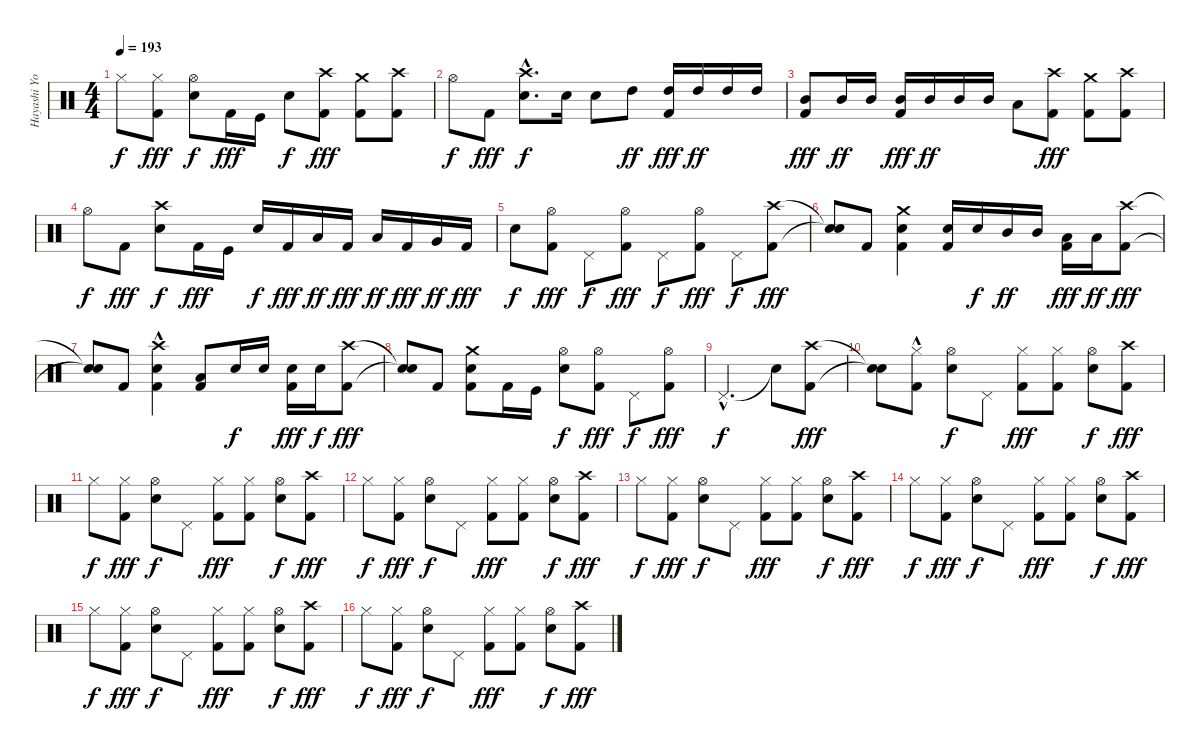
\track ("Hayashi Yoshiki(Yoshiki)" "Hayashi Yo") {instrument percussion}
\staff {score}
\articulation defaults
\ts (4 4)
\tempo 193
\clef neutral
\ks c "Hi-Hat (closed)".8{dy f}
("Hi-Hat (closed)" "Kick (hit) 2").8{dy fff} ("Hi-Hat (open)" "Electric Snare (hit)").8{dy f} "Kick (hit) 2".16{dy fff} "Kick (hit)".16 "Electric Snare (hit)".8{dy f} ("Crash high (hit)" "Kick (hit) 2").8{dy fff} ("Crash medium (hit)" "Kick (hit) 2").8 ("Crash high (hit)" "Kick (hit) 2").8 |
"Hi-Hat (open)".8{dy f} "Kick (hit) 2".8{dy fff} ("Crash high (hit)"{hac} "Electric Snare (hit)"{hac}).8{d dy f} "Electric Snare (hit)".16 "Electric Snare (hit)".8 "High Tom (hit)".8{dy ff} ("High Tom (hit)" "Kick (hit) 2").16{dy fff} "High Tom (hit)".16{dy ff} "High Tom (hit)".16 "High Tom (hit)".16 |
("Mid Tom (hit)" "Kick (hit) 2").8{dy fff} "Mid Tom (hit)".16{dy ff} "Mid Tom (hit)".16 ("Mid Tom (hit)" "Kick (hit) 2").16{dy fff} "Mid Tom (hit)".16{dy ff} "Mid Tom (hit)".16 "Mid Tom (hit)".16 "Low Tom (hit)".8 ("Crash high (hit)" "Kick (hit) 2").8{dy fff} ("Crash medium (hit)" "Kick (hit) 2").8 ("Crash high (hit)" "Kick (hit) 2").8 |
"Hi-Hat (open)".8{dy f} "Kick (hit) 2".8{dy fff} ("Crash high (hit)" "Electric Snare (hit)").8{dy f} "Kick (hit) 2".16{dy fff} "Kick (hit)".16 "Electric Snare (hit)".16{dy f} "Kick (hit) 2".16{dy fff} "Low Tom (hit)".16{dy ff} "Kick (hit) 2".16{dy fff} "Low Tom (hit)".16{dy ff} "Kick (hit) 2".16{dy fff} "Very Low Tom (hit)".16{dy ff} "Kick (hit) 2".16{dy fff} |
"Electric Snare (hit)".8{dy f} ("Hi-Hat (open)" "Kick (hit) 2").8{dy fff} "Pedal Hi-Hat (hit)".8{dy f} ("Hi-Hat (open)" "Kick (hit) 2").8{dy fff} "Pedal Hi-Hat (hit)".8{dy f} ("Hi-Hat (open)" "Kick (hit) 2").8{dy fff} "Pedal Hi-Hat (hit)".8{dy f} ("Crash high (hit)" "Kick (hit) 2").8{dy fff} |
("Snare (hit)"{t} "Snare (hit)"{t}).8 "Kick (hit) 2".8 ("Crash medium (hit)" "Electric Snare (hit)" "Kick (hit) 2").4 ("Electric Snare (hit)" "Kick (hit) 2").16 "Electric Snare (hit)".16{dy f} "Mid Tom (hit)".16{dy ff} "Mid Tom (hit)".16 ("Low Tom (hit)" "Kick (hit) 2").16{dy fff} "Low Tom (hit)".16{dy ff} ("Crash high (hit)" "Kick (hit) 2").8{dy fff} |
("Snare (hit)"{t} "Snare (hit)"{t}).8 "Kick (hit) 2".8 ("Crash high (hit)"{hac} "Electric Snare (hit)" "Kick (hit) 2").4 ("Low Tom (hit)" "Kick (hit) 2").8 "Electric Snare (hit)".16{dy f} "Electric Snare (hit)".16 ("Electric Snare (hit)" "Kick (hit) 2").16{dy fff} "Electric Snare (hit)".16{dy f} ("Crash high (hit)" "Kick (hit) 2").8{dy fff} |
("Snare (hit)"{t} "Snare (hit)"{t}).8 "Kick (hit) 2".8 ("Crash medium (hit)" "Electric Snare (hit)" "Kick (hit) 2").8 "Kick (hit) 2".16 "Kick (hit)".16 ("Hi-Hat (open)" "Electric Snare (hit)").8{dy f} ("Hi-Hat (open)" "Kick (hit) 2").8{dy fff} "Pedal Hi-Hat (hit)".8{dy f} ("Hi-Hat (open)" "Kick (hit) 2").8{dy fff} |
"Pedal Hi-Hat (hit)"{hac}.2{d dy f} "Snare (hit)"{t}.8 ("Crash high (hit)" "Kick (hit) 2").8{dy fff} |
("Snare (hit)"{t} "Snare (hit)"{t}).8 ("Hi-Hat (closed)"{hac} "Kick (hit) 2").8 ("Hi-Hat (open)" "Electric Snare (hit)").8{dy f} "Pedal Hi-Hat (hit)".8 ("Hi-Hat (closed)" "Kick (hit) 2").8{dy fff} ("Hi-Hat (closed)" "Kick (hit) 2").8 ("Hi-Hat (open)" "Electric Snare (hit)").8{dy f} ("Crash high (hit)" "Kick (hit) 2").8{dy fff} |
"Hi-Hat (closed)".8{dy f} ("Hi-Hat (closed)" "Kick (hit) 2").8{dy fff} ("Hi-Hat (open)" "Electric Snare (hit)").8{dy f} "Pedal Hi-Hat (hit)".8 ("Hi-Hat (closed)" "Kick (hit) 2").8{dy fff} ("Hi-Hat (closed)" "Kick (hit) 2").8 ("Hi-Hat (open)" "Electric Snare (hit)").8{dy f} ("Crash high (hit)" "Kick (hit) 2").8{dy fff} |
"Hi-Hat (closed)".8{dy f} ("Hi-Hat (closed)" "Kick (hit) 2").8{dy fff} ("Hi-Hat (open)" "Electric Snare (hit)").8{dy f} "Pedal Hi-Hat (hit)".8 ("Hi-Hat (closed)" "Kick (hit) 2").8{dy fff} ("Hi-Hat (closed)" "Kick (hit) 2").8 ("Hi-Hat (open)" "Electric Snare (hit)").8{dy f} ("Crash high (hit)" "Kick (hit) 2").8{dy fff} |
"Hi-Hat (closed)".8{dy f} ("Hi-Hat (closed)" "Kick (hit) 2").8{dy fff} ("Hi-Hat (open)" "Electric Snare (hit)").8{dy f} "Pedal Hi-Hat (hit)".8 ("Hi-Hat (closed)" "Kick (hit) 2").8{dy fff} ("Hi-Hat (closed)" "Kick (hit) 2").8 ("Hi-Hat (open)" "Electric Snare (hit)").8{dy f} ("Crash high (hit)" "Kick (hit) 2").8{dy fff} |
"Hi-Hat (closed)".8{dy f} ("Hi-Hat (closed)" "Kick (hit) 2").8{dy fff} ("Hi-Hat (open)" "Electric Snare (hit)").8{dy f} "Pedal Hi-Hat (hit)".8 ("Hi-Hat (closed)" "Kick (hit) 2").8{dy fff} ("Hi-Hat (closed)" "Kick (hit) 2").8 ("Hi-Hat (open)" "Electric Snare (hit)").8{dy f} ("Crash high (hit)" "Kick (hit) 2").8{dy fff} |
"Hi-Hat (closed)".8{dy f} ("Hi-Hat (closed)" "Kick (hit) 2").8{dy fff} ("Hi-Hat (open)" "Electric Snare (hit)").8{dy f} "Pedal Hi-Hat (hit)".8 ("Hi-Hat (closed)" "Kick (hit) 2").8{dy fff} ("Hi-Hat (closed)" "Kick (hit) 2").8 ("Hi-Hat (open)" "Electric Snare (hit)").8{dy f} ("Crash high (hit)" "Kick (hit) 2").8{dy fff} |
"Hi-Hat (closed)".8{dy f} ("Hi-Hat (closed)" "Kick (hit) 2").8{dy fff} ("Hi-Hat (open)" "Electric Snare (hit)").8{dy f} "Pedal Hi-Hat (hit)".8 ("Hi-Hat (closed)" "Kick (hit) 2").8{dy fff} ("Hi-Hat (closed)" "Kick (hit) 2").8 ("Hi-Hat (open)" "Electric Snare (hit)").8{dy f} ("Crash high (hit)" "Kick (hit) 2").8{dy fff}
